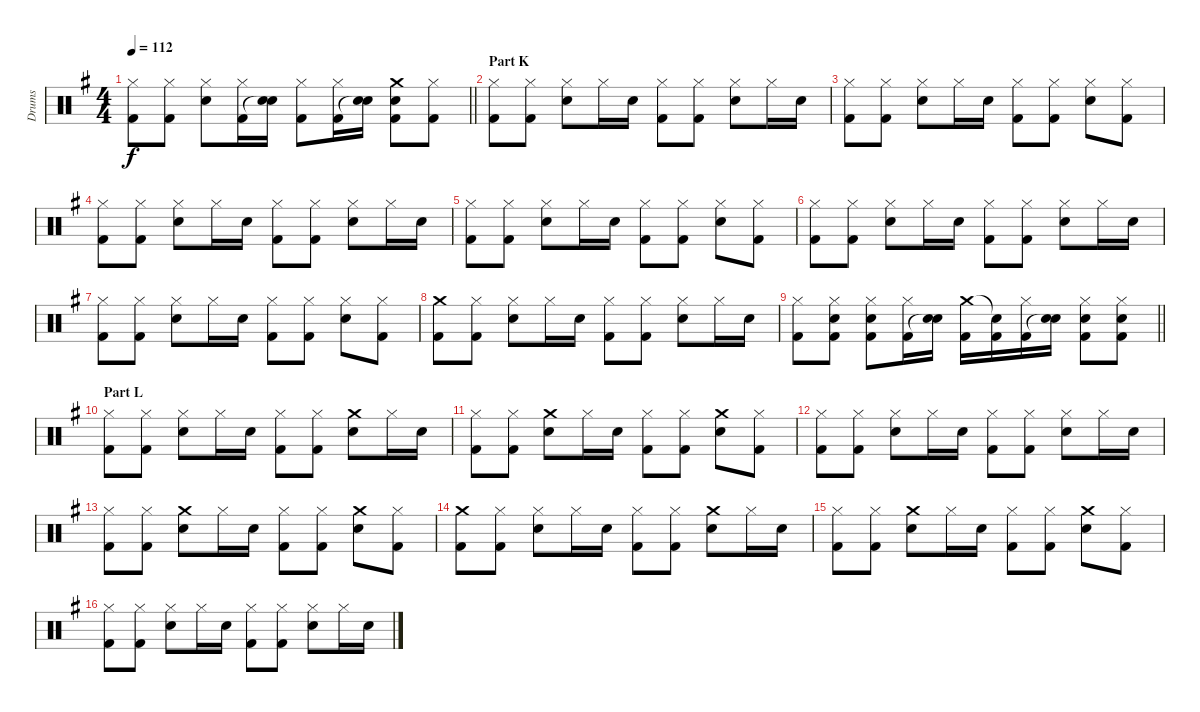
\track ("Drums" "Drums") {instrument percussion}
\staff {score}
\articulation defaults
\ts (4 4)
\tempo 112
\clef neutral
\barLineRight lightlight
\ks g
("Hi-Hat (closed)" "Kick (hit) 2").8{dy f} ("Hi-Hat (closed)" "Kick (hit) 2").8 ("Hi-Hat (closed)" "Electric Snare (hit)").8 ("Hi-Hat (closed)" "Kick (hit) 2").16 ("Electric Snare (hit)" "Snare (hit)"{t}).16 ("Hi-Hat (closed)" "Kick (hit) 2").8 ("Hi-Hat (closed)" "Kick (hit) 2").16 ("Electric Snare (hit)" "Snare (hit)"{t}).16 ("Crash medium (hit)" "Electric Snare (hit)" "Kick (hit) 2").8 ("Hi-Hat (closed)" "Kick (hit) 2").8 |
\section ("" "Part K")
("Hi-Hat (closed)" "Kick (hit) 2").8 ("Hi-Hat (closed)" "Kick (hit) 2").8 ("Hi-Hat (closed)" "Electric Snare (hit)").8 "Hi-Hat (closed)".16 "Electric Snare (hit)".16 ("Hi-Hat (closed)" "Kick (hit) 2").8 ("Hi-Hat (closed)" "Kick (hit) 2").8 ("Hi-Hat (closed)" "Electric Snare (hit)").8 "Hi-Hat (closed)".16 "Electric Snare (hit)".16 |
("Hi-Hat (closed)" "Kick (hit) 2").8 ("Hi-Hat (closed)" "Kick (hit) 2").8 ("Hi-Hat (closed)" "Electric Snare (hit)").8 "Hi-Hat (closed)".16 "Electric Snare (hit)".16 ("Hi-Hat (closed)" "Kick (hit) 2").8 ("Hi-Hat (closed)" "Kick (hit) 2").8 ("Hi-Hat (closed)" "Electric Snare (hit)").8 ("Hi-Hat (closed)" "Kick (hit) 2").8 |
("Hi-Hat (closed)" "Kick (hit) 2").8 ("Hi-Hat (closed)" "Kick (hit) 2").8 ("Hi-Hat (closed)" "Electric Snare (hit)").8 "Hi-Hat (closed)".16 "Electric Snare (hit)".16 ("Hi-Hat (closed)" "Kick (hit) 2").8 ("Hi-Hat (closed)" "Kick (hit) 2").8 ("Hi-Hat (closed)" "Electric Snare (hit)").8 "Hi-Hat (closed)".16 "Electric Snare (hit)".16 |
("Hi-Hat (closed)" "Kick (hit) 2").8 ("Hi-Hat (closed)" "Kick (hit) 2").8 ("Hi-Hat (closed)" "Electric Snare (hit)").8 "Hi-Hat (closed)".16 "Electric Snare (hit)".16 ("Hi-Hat (closed)" "Kick (hit) 2").8 ("Hi-Hat (closed)" "Kick (hit) 2").8 ("Hi-Hat (closed)" "Electric Snare (hit)").8 ("Hi-Hat (closed)" "Kick (hit) 2").8 |
("Hi-Hat (closed)" "Kick (hit) 2").8 ("Hi-Hat (closed)" "Kick (hit) 2").8 ("Hi-Hat (closed)" "Electric Snare (hit)").8 "Hi-Hat (closed)".16 "Electric Snare (hit)".16 ("Hi-Hat (closed)" "Kick (hit) 2").8 ("Hi-Hat (closed)" "Kick (hit) 2").8 ("Hi-Hat (closed)" "Electric Snare (hit)").8 "Hi-Hat (closed)".16 "Electric Snare (hit)".16 |
("Hi-Hat (closed)" "Kick (hit) 2").8 ("Hi-Hat (closed)" "Kick (hit) 2").8 ("Hi-Hat (closed)" "Electric Snare (hit)").8 "Hi-Hat (closed)".16 "Electric Snare (hit)".16 ("Hi-Hat (closed)" "Kick (hit) 2").8 ("Hi-Hat (closed)" "Kick (hit) 2").8 ("Hi-Hat (closed)" "Electric Snare (hit)").8 ("Hi-Hat (closed)" "Kick (hit) 2").8 |
("Crash medium (hit)" "Kick (hit) 2").8 ("Hi-Hat (closed)" "Kick (hit) 2").8 ("Hi-Hat (closed)" "Electric Snare (hit)").8 "Hi-Hat (closed)".16 "Electric Snare (hit)".16 ("Hi-Hat (closed)" "Kick (hit) 2").8 ("Hi-Hat (closed)" "Kick (hit) 2").8 ("Hi-Hat (closed)" "Electric Snare (hit)").8 "Hi-Hat (closed)".16 "Electric Snare (hit)".16 |
\barLineRight lightlight
("Hi-Hat (closed)" "Kick (hit) 2").8 ("Hi-Hat (closed)" "Electric Snare (hit)" "Kick (hit) 2").8 ("Hi-Hat (closed)" "Electric Snare (hit)" "Kick (hit) 2").8 ("Hi-Hat (closed)" "Kick (hit) 2").16 ("Electric Snare (hit)" "Snare (hit)"{t}).16 ("Crash medium (hit)" "Kick (hit) 2").16 ("Snare (hit)"{t} "Kick (hit) 2").16 ("Hi-Hat (closed)" "Kick (hit) 2").16 ("Electric Snare (hit)" "Snare (hit)"{t}).16 ("Hi-Hat (closed)" "Electric Snare (hit)" "Kick (hit) 2").8 ("Hi-Hat (closed)" "Electric Snare (hit)" "Kick (hit) 2").8 |
\section ("" "Part L")
("Hi-Hat (closed)" "Kick (hit) 2").8 ("Hi-Hat (closed)" "Kick (hit) 2").8 ("Hi-Hat (closed)" "Electric Snare (hit)").8 "Hi-Hat (closed)".16 "Electric Snare (hit)".16 ("Hi-Hat (closed)" "Kick (hit) 2").8 ("Hi-Hat (closed)" "Kick (hit) 2").8 ("Crash medium (hit)" "Electric Snare (hit)").8 "Hi-Hat (closed)".16 "Electric Snare (hit)".16 |
("Hi-Hat (closed)" "Kick (hit) 2").8 ("Hi-Hat (closed)" "Kick (hit) 2").8 ("Crash medium (hit)" "Electric Snare (hit)").8 "Hi-Hat (closed)".16 "Electric Snare (hit)".16 ("Hi-Hat (closed)" "Kick (hit) 2").8 ("Hi-Hat (closed)" "Kick (hit) 2").8 ("Crash medium (hit)" "Electric Snare (hit)").8 ("Hi-Hat (closed)" "Kick (hit) 2").8 |
("Hi-Hat (closed)" "Kick (hit) 2").8 ("Hi-Hat (closed)" "Kick (hit) 2").8 ("Hi-Hat (closed)" "Electric Snare (hit)").8 "Hi-Hat (closed)".16 "Electric Snare (hit)".16 ("Hi-Hat (closed)" "Kick (hit) 2").8 ("Hi-Hat (closed)" "Kick (hit) 2").8 ("Hi-Hat (closed)" "Electric Snare (hit)").8 "Hi-Hat (closed)".16 "Electric Snare (hit)".16 |
("Hi-Hat (closed)" "Kick (hit) 2").8 ("Hi-Hat (closed)" "Kick (hit) 2").8 ("Crash medium (hit)" "Electric Snare (hit)").8 "Hi-Hat (closed)".16 "Electric Snare (hit)".16 ("Hi-Hat (closed)" "Kick (hit) 2").8 ("Hi-Hat (closed)" "Kick (hit) 2").8 ("Crash medium (hit)" "Electric Snare (hit)").8 ("Hi-Hat (closed)" "Kick (hit) 2").8 |
("Crash medium (hit)" "Kick (hit) 2").8 ("Hi-Hat (closed)" "Kick (hit) 2").8 ("Hi-Hat (closed)" "Electric Snare (hit)").8 "Hi-Hat (closed)".16 "Electric Snare (hit)".16 ("Hi-Hat (closed)" "Kick (hit) 2").8 ("Hi-Hat (closed)" "Kick (hit) 2").8 ("Crash medium (hit)" "Electric Snare (hit)").8 "Hi-Hat (closed)".16 "Electric Snare (hit)".16 |
("Hi-Hat (closed)" "Kick (hit) 2").8 ("Hi-Hat (closed)" "Kick (hit) 2").8 ("Crash medium (hit)" "Electric Snare (hit)").8 "Hi-Hat (closed)".16 "Electric Snare (hit)".16 ("Hi-Hat (closed)" "Kick (hit) 2").8 ("Hi-Hat (closed)" "Kick (hit) 2").8 ("Crash medium (hit)" "Electric Snare (hit)").8 ("Hi-Hat (closed)" "Kick (hit) 2").8 |
("Hi-Hat (closed)" "Kick (hit) 2").8 ("Hi-Hat (closed)" "Kick (hit) 2").8 ("Hi-Hat (closed)" "Electric Snare (hit)").8 "Hi-Hat (closed)".16 "Electric Snare (hit)".16 ("Hi-Hat (closed)" "Kick (hit) 2").8 ("Hi-Hat (closed)" "Kick (hit) 2").8 ("Hi-Hat (closed)" "Electric Snare (hit)").8 "Hi-Hat (closed)".16 "Electric Snare (hit)".16
